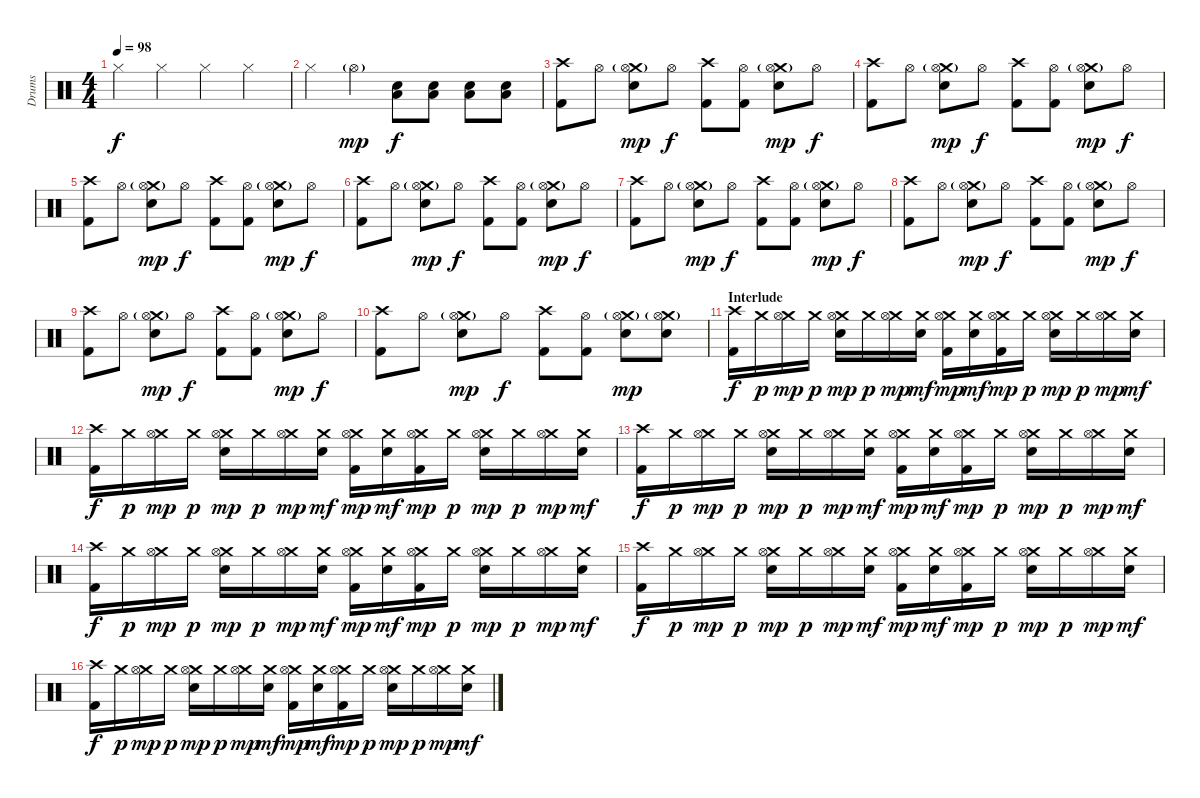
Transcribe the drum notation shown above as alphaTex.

\track ("Drums" "Drums") {instrument percussion}
\staff {score}
\articulation defaults
\ts (4 4)
\tempo 98
\clef neutral
\ks c "Hi-Hat (closed)".4{dy f} "Hi-Hat (closed)".4 "Hi-Hat (closed)".4 "Hi-Hat (closed)".4
|
"Hi-Hat (closed)".4 "Hi-Hat (open)"{g}.4{dy mp} ("Snare (hit) 2" "Low Tom (hit)").8{dy f} ("Snare (hit) 2" "Low Tom (hit)").8 ("Snare (hit) 2" "Low Tom (hit)").8 ("Snare (hit) 2" "Low Tom (hit)").8 |
("Crash high (hit)" "Kick (hit) 2").8 "Hi-Hat (open)".8 ("Crash medium (hit)"{g} "Hi-Hat (open)" "Snare (hit) 2").8{dy mp} "Hi-Hat (open)".8{dy f} ("Crash high (hit)" "Kick (hit) 2").8 ("Hi-Hat (open)" "Kick (hit) 2").8 ("Crash medium (hit)"{g} "Hi-Hat (open)" "Snare (hit) 2").8{dy mp} "Hi-Hat (open)".8{dy f} |
("Crash high (hit)" "Kick (hit) 2").8 "Hi-Hat (open)".8 ("Crash medium (hit)"{g} "Hi-Hat (open)" "Snare (hit) 2").8{dy mp} "Hi-Hat (open)".8{dy f} ("Crash high (hit)" "Kick (hit) 2").8 ("Hi-Hat (open)" "Kick (hit) 2").8 ("Crash medium (hit)"{g} "Hi-Hat (open)" "Snare (hit) 2").8{dy mp} "Hi-Hat (open)".8{dy f} |
("Crash high (hit)" "Kick (hit) 2").8 "Hi-Hat (open)".8 ("Crash medium (hit)"{g} "Hi-Hat (open)" "Snare (hit) 2").8{dy mp} "Hi-Hat (open)".8{dy f} ("Crash high (hit)" "Kick (hit) 2").8 ("Hi-Hat (open)" "Kick (hit) 2").8 ("Crash medium (hit)"{g} "Hi-Hat (open)" "Snare (hit) 2").8{dy mp} "Hi-Hat (open)".8{dy f} |
("Crash high (hit)" "Kick (hit) 2").8 "Hi-Hat (open)".8 ("Crash medium (hit)"{g} "Hi-Hat (open)" "Snare (hit) 2").8{dy mp} "Hi-Hat (open)".8{dy f} ("Crash high (hit)" "Kick (hit) 2").8 ("Hi-Hat (open)" "Kick (hit) 2").8 ("Crash medium (hit)"{g} "Hi-Hat (open)" "Snare (hit) 2").8{dy mp} "Hi-Hat (open)".8{dy f} |
("Crash high (hit)" "Kick (hit) 2").8 "Hi-Hat (open)".8 ("Crash medium (hit)"{g} "Hi-Hat (open)" "Snare (hit) 2").8{dy mp} "Hi-Hat (open)".8{dy f} ("Crash high (hit)" "Kick (hit) 2").8 ("Hi-Hat (open)" "Kick (hit) 2").8 ("Crash medium (hit)"{g} "Hi-Hat (open)" "Snare (hit) 2").8{dy mp} "Hi-Hat (open)".8{dy f} |
("Crash high (hit)" "Kick (hit) 2").8 "Hi-Hat (open)".8 ("Crash medium (hit)"{g} "Hi-Hat (open)" "Snare (hit) 2").8{dy mp} "Hi-Hat (open)".8{dy f} ("Crash high (hit)" "Kick (hit) 2").8 ("Hi-Hat (open)" "Kick (hit) 2").8 ("Crash medium (hit)"{g} "Hi-Hat (open)" "Snare (hit) 2").8{dy mp} "Hi-Hat (open)".8{dy f} |
("Crash high (hit)" "Kick (hit) 2").8 "Hi-Hat (open)".8 ("Crash medium (hit)"{g} "Hi-Hat (open)" "Snare (hit) 2").8{dy mp} "Hi-Hat (open)".8{dy f} ("Crash high (hit)" "Kick (hit) 2").8 ("Hi-Hat (open)" "Kick (hit) 2").8 ("Crash medium (hit)"{g} "Hi-Hat (open)" "Snare (hit) 2").8{dy mp} "Hi-Hat (open)".8{dy f} |
("Crash high (hit)" "Kick (hit) 2").8 "Hi-Hat (open)".8 ("Crash medium (hit)"{g} "Hi-Hat (open)" "Snare (hit) 2").8{dy mp} "Hi-Hat (open)".8{dy f} ("Crash high (hit)" "Kick (hit) 2").8 ("Hi-Hat (open)" "Kick (hit) 2").8 ("Crash medium (hit)"{g} "Hi-Hat (open)" "Snare (hit) 2").8{dy mp} ("Crash medium (hit)"{g} "Hi-Hat (open)" "Snare (hit) 2").8 |
\section ("" "Interlude")
("Crash high (hit)" "Kick (hit) 2").16{dy f} "Crash medium (hit)".16{dy p} ("Crash medium (hit)" "Hi-Hat (open)").16{dy mp} "Crash medium (hit)".16{dy p} ("Crash medium (hit)" "Hi-Hat (open)" "Snare (hit) 2").16{dy mp} "Crash medium (hit)".16{dy p} ("Crash medium (hit)" "Hi-Hat (open)").16{dy mp} ("Crash medium (hit)" "Snare (hit) 2").16{dy mf} ("Crash medium (hit)" "Hi-Hat (open)" "Kick (hit) 2").16{dy mp} ("Crash medium (hit)" "Snare (hit) 2").16{dy mf} ("Crash medium (hit)" "Hi-Hat (open)" "Kick (hit) 2").16{dy mp} "Crash medium (hit)".16{dy p} ("Crash medium (hit)" "Hi-Hat (open)" "Snare (hit) 2").16{dy mp} "Crash medium (hit)".16{dy p} ("Crash medium (hit)" "Hi-Hat (open)").16{dy mp} ("Crash medium (hit)" "Snare (hit) 2").16{dy mf} |
("Crash high (hit)" "Kick (hit) 2").16{dy f} "Crash medium (hit)".16{dy p} ("Crash medium (hit)" "Hi-Hat (open)").16{dy mp} "Crash medium (hit)".16{dy p} ("Crash medium (hit)" "Hi-Hat (open)" "Snare (hit) 2").16{dy mp} "Crash medium (hit)".16{dy p} ("Crash medium (hit)" "Hi-Hat (open)").16{dy mp} ("Crash medium (hit)" "Snare (hit) 2").16{dy mf} ("Crash medium (hit)" "Hi-Hat (open)" "Kick (hit) 2").16{dy mp} ("Crash medium (hit)" "Snare (hit) 2").16{dy mf} ("Crash medium (hit)" "Hi-Hat (open)" "Kick (hit) 2").16{dy mp} "Crash medium (hit)".16{dy p} ("Crash medium (hit)" "Hi-Hat (open)" "Snare (hit) 2").16{dy mp} "Crash medium (hit)".16{dy p} ("Crash medium (hit)" "Hi-Hat (open)").16{dy mp} ("Crash medium (hit)" "Snare (hit) 2").16{dy mf} |
("Crash high (hit)" "Kick (hit) 2").16{dy f} "Crash medium (hit)".16{dy p} ("Crash medium (hit)" "Hi-Hat (open)").16{dy mp} "Crash medium (hit)".16{dy p} ("Crash medium (hit)" "Hi-Hat (open)" "Snare (hit) 2").16{dy mp} "Crash medium (hit)".16{dy p} ("Crash medium (hit)" "Hi-Hat (open)").16{dy mp} ("Crash medium (hit)" "Snare (hit) 2").16{dy mf} ("Crash medium (hit)" "Hi-Hat (open)" "Kick (hit) 2").16{dy mp} ("Crash medium (hit)" "Snare (hit) 2").16{dy mf} ("Crash medium (hit)" "Hi-Hat (open)" "Kick (hit) 2").16{dy mp} "Crash medium (hit)".16{dy p} ("Crash medium (hit)" "Hi-Hat (open)" "Snare (hit) 2").16{dy mp} "Crash medium (hit)".16{dy p} ("Crash medium (hit)" "Hi-Hat (open)").16{dy mp} ("Crash medium (hit)" "Snare (hit) 2").16{dy mf} |
("Crash high (hit)" "Kick (hit) 2").16{dy f} "Crash medium (hit)".16{dy p} ("Crash medium (hit)" "Hi-Hat (open)").16{dy mp} "Crash medium (hit)".16{dy p} ("Crash medium (hit)" "Hi-Hat (open)" "Snare (hit) 2").16{dy mp} "Crash medium (hit)".16{dy p} ("Crash medium (hit)" "Hi-Hat (open)").16{dy mp} ("Crash medium (hit)" "Snare (hit) 2").16{dy mf} ("Crash medium (hit)" "Hi-Hat (open)" "Kick (hit) 2").16{dy mp} ("Crash medium (hit)" "Snare (hit) 2").16{dy mf} ("Crash medium (hit)" "Hi-Hat (open)" "Kick (hit) 2").16{dy mp} "Crash medium (hit)".16{dy p} ("Crash medium (hit)" "Hi-Hat (open)" "Snare (hit) 2").16{dy mp} "Crash medium (hit)".16{dy p} ("Crash medium (hit)" "Hi-Hat (open)").16{dy mp} ("Crash medium (hit)" "Snare (hit) 2").16{dy mf} |
("Crash high (hit)" "Kick (hit) 2").16{dy f} "Crash medium (hit)".16{dy p} ("Crash medium (hit)" "Hi-Hat (open)").16{dy mp} "Crash medium (hit)".16{dy p} ("Crash medium (hit)" "Hi-Hat (open)" "Snare (hit) 2").16{dy mp} "Crash medium (hit)".16{dy p} ("Crash medium (hit)" "Hi-Hat (open)").16{dy mp} ("Crash medium (hit)" "Snare (hit) 2").16{dy mf} ("Crash medium (hit)" "Hi-Hat (open)" "Kick (hit) 2").16{dy mp} ("Crash medium (hit)" "Snare (hit) 2").16{dy mf} ("Crash medium (hit)" "Hi-Hat (open)" "Kick (hit) 2").16{dy mp} "Crash medium (hit)".16{dy p} ("Crash medium (hit)" "Hi-Hat (open)" "Snare (hit) 2").16{dy mp} "Crash medium (hit)".16{dy p} ("Crash medium (hit)" "Hi-Hat (open)").16{dy mp} ("Crash medium (hit)" "Snare (hit) 2").16{dy mf} |
("Crash high (hit)" "Kick (hit) 2").16{dy f} "Crash medium (hit)".16{dy p} ("Crash medium (hit)" "Hi-Hat (open)").16{dy mp} "Crash medium (hit)".16{dy p} ("Crash medium (hit)" "Hi-Hat (open)" "Snare (hit) 2").16{dy mp} "Crash medium (hit)".16{dy p} ("Crash medium (hit)" "Hi-Hat (open)").16{dy mp} ("Crash medium (hit)" "Snare (hit) 2").16{dy mf} ("Crash medium (hit)" "Hi-Hat (open)" "Kick (hit) 2").16{dy mp} ("Crash medium (hit)" "Snare (hit) 2").16{dy mf} ("Crash medium (hit)" "Hi-Hat (open)" "Kick (hit) 2").16{dy mp} "Crash medium (hit)".16{dy p} ("Crash medium (hit)" "Hi-Hat (open)" "Snare (hit) 2").16{dy mp} "Crash medium (hit)".16{dy p} ("Crash medium (hit)" "Hi-Hat (open)").16{dy mp} ("Crash medium (hit)" "Snare (hit) 2").16{dy mf}
